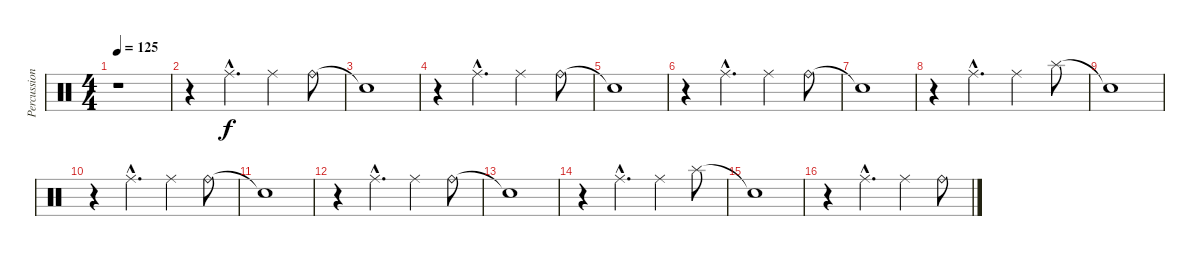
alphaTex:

\track ("Percussion" "Percussion") {instrument percussion}
\staff {score}
\articulation defaults
\ts (4 4)
\tempo 125
\clef neutral
\ks c
r.1{dy f} |
r.4 "Ride (middle)"{hac}.4{d} "Ride (middle)".4 "Ride (bell)".8 |
"Snare (hit)"{t}.1 |
r.4 "Ride (middle)"{hac}.4{d} "Ride (middle)".4 "Ride (bell)".8 |
"Snare (hit)"{t}.1 |
r.4 "Ride (middle)"{hac}.4{d} "Ride (middle)".4 "Ride (bell)".8 |
"Snare (hit)"{t}.1 |
r.4 "Ride (middle)"{hac}.4{d} "Ride (middle)".4 "Splash (hit)".8 |
"Snare (hit)"{t}.1 |
r.4 "Ride (middle)"{hac}.4{d} "Ride (middle)".4 "Ride (bell)".8 |
"Snare (hit)"{t}.1 |
r.4 "Ride (middle)"{hac}.4{d} "Ride (middle)".4 "Ride (bell)".8 |
"Snare (hit)"{t}.1 |
r.4 "Ride (middle)"{hac}.4{d} "Ride (middle)".4 "Splash (hit)".8 |
"Snare (hit)"{t}.1 |
r.4 "Ride (middle)"{hac}.4{d} "Ride (middle)".4 "Ride (bell)".8
